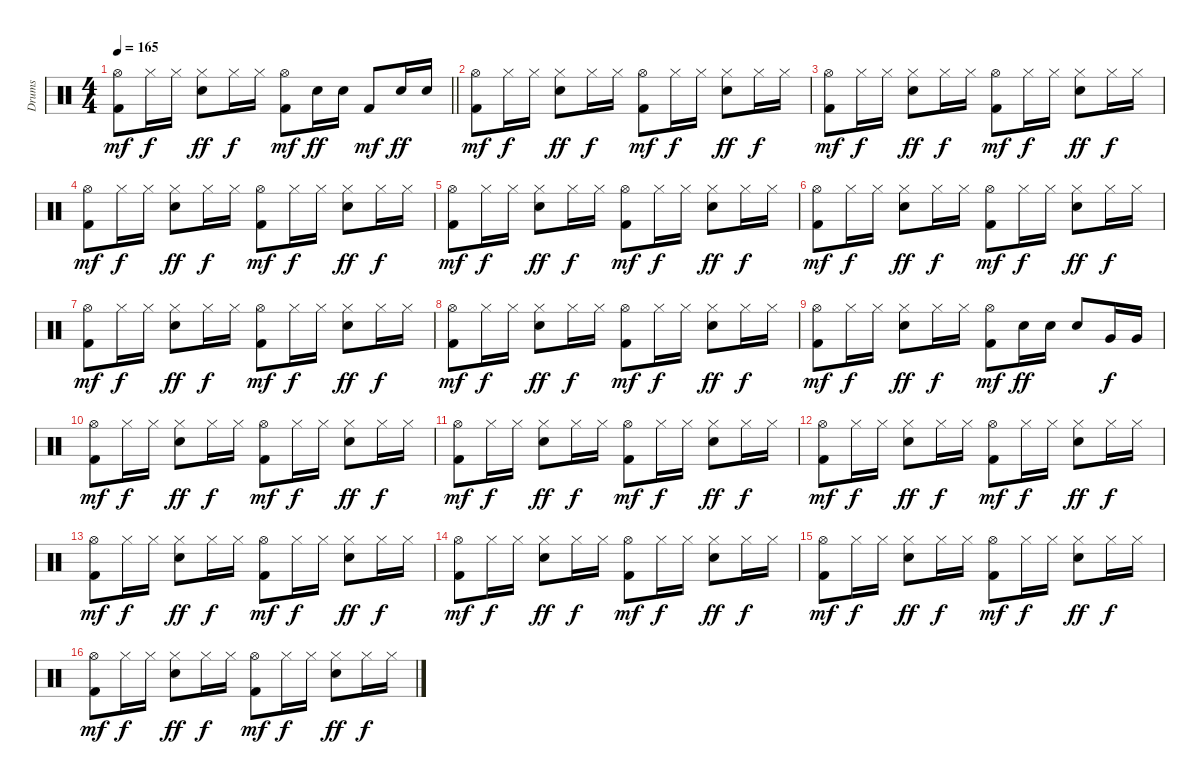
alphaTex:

\track ("Drums" "Drums") {instrument percussion}
\staff {score}
\articulation defaults
\ts (4 4)
\tempo 165
\clef neutral
\barLineRight lightlight
\ks c
("Hi-Hat (open)" "Kick (hit) 2").8{dy mf} "Hi-Hat (closed)".16{dy f} "Hi-Hat (closed)".16 ("Hi-Hat (closed)" "Electric Snare (hit)").8{dy ff} "Hi-Hat (closed)".16{dy f} "Hi-Hat (closed)".16 ("Hi-Hat (open)" "Kick (hit) 2").8{dy mf} "Electric Snare (hit)".16{dy ff} "Electric Snare (hit)".16 "Kick (hit) 2".8{dy mf} "Electric Snare (hit)".16{dy ff} "Electric Snare (hit)".16 |
("Hi-Hat (open)" "Kick (hit) 2").8{dy mf} "Hi-Hat (closed)".16{dy f} "Hi-Hat (closed)".16 ("Hi-Hat (closed)" "Electric Snare (hit)").8{dy ff} "Hi-Hat (closed)".16{dy f} "Hi-Hat (closed)".16 ("Hi-Hat (open)" "Kick (hit) 2").8{dy mf} "Hi-Hat (closed)".16{dy f} "Hi-Hat (closed)".16 ("Hi-Hat (closed)" "Electric Snare (hit)").8{dy ff} "Hi-Hat (closed)".16{dy f} "Hi-Hat (closed)".16 |
("Hi-Hat (open)" "Kick (hit) 2").8{dy mf} "Hi-Hat (closed)".16{dy f} "Hi-Hat (closed)".16 ("Hi-Hat (closed)" "Electric Snare (hit)").8{dy ff} "Hi-Hat (closed)".16{dy f} "Hi-Hat (closed)".16 ("Hi-Hat (open)" "Kick (hit) 2").8{dy mf} "Hi-Hat (closed)".16{dy f} "Hi-Hat (closed)".16 ("Hi-Hat (closed)" "Electric Snare (hit)").8{dy ff} "Hi-Hat (closed)".16{dy f} "Hi-Hat (closed)".16 |
("Hi-Hat (open)" "Kick (hit) 2").8{dy mf} "Hi-Hat (closed)".16{dy f} "Hi-Hat (closed)".16 ("Hi-Hat (closed)" "Electric Snare (hit)").8{dy ff} "Hi-Hat (closed)".16{dy f} "Hi-Hat (closed)".16 ("Hi-Hat (open)" "Kick (hit) 2").8{dy mf} "Hi-Hat (closed)".16{dy f} "Hi-Hat (closed)".16 ("Hi-Hat (closed)" "Electric Snare (hit)").8{dy ff} "Hi-Hat (closed)".16{dy f} "Hi-Hat (closed)".16 |
("Hi-Hat (open)" "Kick (hit) 2").8{dy mf} "Hi-Hat (closed)".16{dy f} "Hi-Hat (closed)".16 ("Hi-Hat (closed)" "Electric Snare (hit)").8{dy ff} "Hi-Hat (closed)".16{dy f} "Hi-Hat (closed)".16 ("Hi-Hat (open)" "Kick (hit) 2").8{dy mf} "Hi-Hat (closed)".16{dy f} "Hi-Hat (closed)".16 ("Hi-Hat (closed)" "Electric Snare (hit)").8{dy ff} "Hi-Hat (closed)".16{dy f} "Hi-Hat (closed)".16 |
("Hi-Hat (open)" "Kick (hit) 2").8{dy mf} "Hi-Hat (closed)".16{dy f} "Hi-Hat (closed)".16 ("Hi-Hat (closed)" "Electric Snare (hit)").8{dy ff} "Hi-Hat (closed)".16{dy f} "Hi-Hat (closed)".16 ("Hi-Hat (open)" "Kick (hit) 2").8{dy mf} "Hi-Hat (closed)".16{dy f} "Hi-Hat (closed)".16 ("Hi-Hat (closed)" "Electric Snare (hit)").8{dy ff} "Hi-Hat (closed)".16{dy f} "Hi-Hat (closed)".16 |
("Hi-Hat (open)" "Kick (hit) 2").8{dy mf} "Hi-Hat (closed)".16{dy f} "Hi-Hat (closed)".16 ("Hi-Hat (closed)" "Electric Snare (hit)").8{dy ff} "Hi-Hat (closed)".16{dy f} "Hi-Hat (closed)".16 ("Hi-Hat (open)" "Kick (hit) 2").8{dy mf} "Hi-Hat (closed)".16{dy f} "Hi-Hat (closed)".16 ("Hi-Hat (closed)" "Electric Snare (hit)").8{dy ff} "Hi-Hat (closed)".16{dy f} "Hi-Hat (closed)".16 |
("Hi-Hat (open)" "Kick (hit) 2").8{dy mf} "Hi-Hat (closed)".16{dy f} "Hi-Hat (closed)".16 ("Hi-Hat (closed)" "Electric Snare (hit)").8{dy ff} "Hi-Hat (closed)".16{dy f} "Hi-Hat (closed)".16 ("Hi-Hat (open)" "Kick (hit) 2").8{dy mf} "Hi-Hat (closed)".16{dy f} "Hi-Hat (closed)".16 ("Hi-Hat (closed)" "Electric Snare (hit)").8{dy ff} "Hi-Hat (closed)".16{dy f} "Hi-Hat (closed)".16 |
("Hi-Hat (open)" "Kick (hit) 2").8{dy mf} "Hi-Hat (closed)".16{dy f} "Hi-Hat (closed)".16 ("Hi-Hat (closed)" "Electric Snare (hit)").8{dy ff} "Hi-Hat (closed)".16{dy f} "Hi-Hat (closed)".16 ("Hi-Hat (open)" "Kick (hit) 2").8{dy mf} "Electric Snare (hit)".16{dy ff} "Electric Snare (hit)".16 "Electric Snare (hit)".8 "Very Low Tom (hit)".16{dy f} "Very Low Tom (hit)".16 |
("Hi-Hat (open)" "Kick (hit) 2").8{dy mf} "Hi-Hat (closed)".16{dy f} "Hi-Hat (closed)".16 ("Hi-Hat (closed)" "Electric Snare (hit)").8{dy ff} "Hi-Hat (closed)".16{dy f} "Hi-Hat (closed)".16 ("Hi-Hat (open)" "Kick (hit) 2").8{dy mf} "Hi-Hat (closed)".16{dy f} "Hi-Hat (closed)".16 ("Hi-Hat (closed)" "Electric Snare (hit)").8{dy ff} "Hi-Hat (closed)".16{dy f} "Hi-Hat (closed)".16 |
("Hi-Hat (open)" "Kick (hit) 2").8{dy mf} "Hi-Hat (closed)".16{dy f} "Hi-Hat (closed)".16 ("Hi-Hat (closed)" "Electric Snare (hit)").8{dy ff} "Hi-Hat (closed)".16{dy f} "Hi-Hat (closed)".16 ("Hi-Hat (open)" "Kick (hit) 2").8{dy mf} "Hi-Hat (closed)".16{dy f} "Hi-Hat (closed)".16 ("Hi-Hat (closed)" "Electric Snare (hit)").8{dy ff} "Hi-Hat (closed)".16{dy f} "Hi-Hat (closed)".16 |
("Hi-Hat (open)" "Kick (hit) 2").8{dy mf} "Hi-Hat (closed)".16{dy f} "Hi-Hat (closed)".16 ("Hi-Hat (closed)" "Electric Snare (hit)").8{dy ff} "Hi-Hat (closed)".16{dy f} "Hi-Hat (closed)".16 ("Hi-Hat (open)" "Kick (hit) 2").8{dy mf} "Hi-Hat (closed)".16{dy f} "Hi-Hat (closed)".16 ("Hi-Hat (closed)" "Electric Snare (hit)").8{dy ff} "Hi-Hat (closed)".16{dy f} "Hi-Hat (closed)".16 |
("Hi-Hat (open)" "Kick (hit) 2").8{dy mf} "Hi-Hat (closed)".16{dy f} "Hi-Hat (closed)".16 ("Hi-Hat (closed)" "Electric Snare (hit)").8{dy ff} "Hi-Hat (closed)".16{dy f} "Hi-Hat (closed)".16 ("Hi-Hat (open)" "Kick (hit) 2").8{dy mf} "Hi-Hat (closed)".16{dy f} "Hi-Hat (closed)".16 ("Hi-Hat (closed)" "Electric Snare (hit)").8{dy ff} "Hi-Hat (closed)".16{dy f} "Hi-Hat (closed)".16 |
("Hi-Hat (open)" "Kick (hit) 2").8{dy mf} "Hi-Hat (closed)".16{dy f} "Hi-Hat (closed)".16 ("Hi-Hat (closed)" "Electric Snare (hit)").8{dy ff} "Hi-Hat (closed)".16{dy f} "Hi-Hat (closed)".16 ("Hi-Hat (open)" "Kick (hit) 2").8{dy mf} "Hi-Hat (closed)".16{dy f} "Hi-Hat (closed)".16 ("Hi-Hat (closed)" "Electric Snare (hit)").8{dy ff} "Hi-Hat (closed)".16{dy f} "Hi-Hat (closed)".16 |
("Hi-Hat (open)" "Kick (hit) 2").8{dy mf} "Hi-Hat (closed)".16{dy f} "Hi-Hat (closed)".16 ("Hi-Hat (closed)" "Electric Snare (hit)").8{dy ff} "Hi-Hat (closed)".16{dy f} "Hi-Hat (closed)".16 ("Hi-Hat (open)" "Kick (hit) 2").8{dy mf} "Hi-Hat (closed)".16{dy f} "Hi-Hat (closed)".16 ("Hi-Hat (closed)" "Electric Snare (hit)").8{dy ff} "Hi-Hat (closed)".16{dy f} "Hi-Hat (closed)".16 |
("Hi-Hat (open)" "Kick (hit) 2").8{dy mf} "Hi-Hat (closed)".16{dy f} "Hi-Hat (closed)".16 ("Hi-Hat (closed)" "Electric Snare (hit)").8{dy ff} "Hi-Hat (closed)".16{dy f} "Hi-Hat (closed)".16 ("Hi-Hat (open)" "Kick (hit) 2").8{dy mf} "Hi-Hat (closed)".16{dy f} "Hi-Hat (closed)".16 ("Hi-Hat (closed)" "Electric Snare (hit)").8{dy ff} "Hi-Hat (closed)".16{dy f} "Hi-Hat (closed)".16
